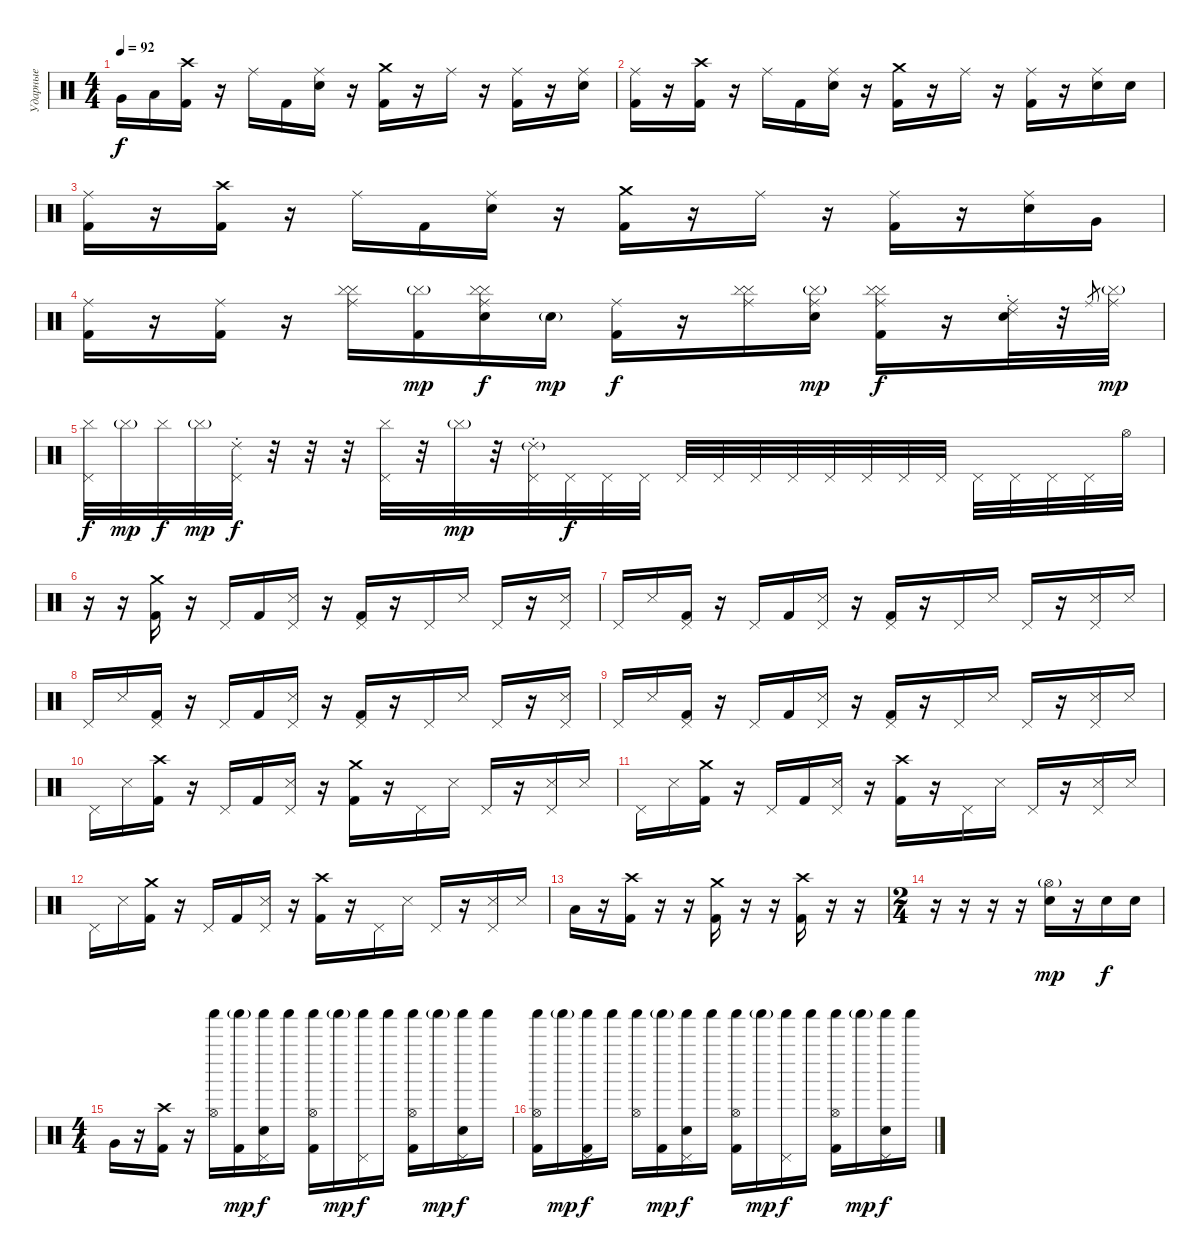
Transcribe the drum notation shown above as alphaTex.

\track ("Ударные" "Ударные") {instrument percussion}
\staff {score}
\articulation defaults
\ts (4 4)
\tempo 92
\clef neutral
\ks c "Very Low Tom (hit)".16{dy f} "Low Floor Tom (hit)".16
("Crash high (hit)" "Kick (hit) 2").16 r.16 "Ride (middle)".16 "Kick (hit) 2".16 ("Ride (middle)" "Electric Snare (hit)").16 r.16 ("Crash medium (hit)" "Kick (hit) 2").16 r.16 "Ride (middle)".16 r.16 ("Ride (middle)" "Kick (hit) 2").16 r.16 ("Ride (middle)" "Electric Snare (hit)").16 |
("Ride (middle)" "Kick (hit) 2").16 r.16 ("Crash high (hit)" "Kick (hit) 2").16 r.16 "Ride (middle)".16 "Kick (hit) 2".16 ("Ride (middle)" "Electric Snare (hit)").16 r.16 ("Crash medium (hit)" "Kick (hit) 2").16 r.16 "Ride (middle)".16 r.16 ("Ride (middle)" "Kick (hit) 2").16 r.16 ("Ride (middle)" "Electric Snare (hit)").16 "Electric Snare (hit)".16 |
("Ride (middle)" "Kick (hit) 2").16 r.16 ("Crash high (hit)" "Kick (hit) 2").16 r.16 "Ride (middle)".16 "Kick (hit) 2".16 ("Ride (middle)" "Electric Snare (hit)").16 r.16 ("Crash medium (hit)" "Kick (hit) 2").16 r.16 "Ride (middle)".16 r.16 ("Ride (middle)" "Kick (hit) 2").16 r.16 ("Ride (middle)" "Electric Snare (hit)").16 "Very Low Tom (hit)".16 |
("Ride (middle)" "Kick (hit) 2").16 r.16 ("Ride (middle)" "Kick (hit) 2").16 r.16 ("Ride (middle)" "Cymbal (hit)" "Cymbal (hit)").16 ("Cymbal (hit)"{g} "Kick (hit) 2").16{dy mp} ("Ride (middle)" "Electric Snare (hit)" "Cymbal (hit)" "Cymbal (hit)").16{dy f} "Electric Snare (hit)"{g}.16{dy mp} ("Ride (middle)" "Kick (hit) 2").16{dy f} r.16 ("Ride (middle)" "Cymbal (hit)" "Cymbal (hit)").16 ("Ride (middle)" "Electric Snare (hit)" "Cymbal (hit)"{g}).16{dy mp} ("Ride (middle)" "Cymbal (hit)" "Cymbal (hit)" "Kick (hit) 2").16{dy f} r.16 ("Ride (middle)" "Ride (choke) 2" "Electric Snare (hit)").32 r.32 "Ride (middle)".8{gr} ("Ride (middle)" "Cymbal (hit)"{g}).32{dy mp} |
("Pedal Hi-Hat (hit)" "Cymbal (hit)").32{dy f} "Cymbal (hit)"{g}.32{dy mp} "Cymbal (hit)".32{dy f} "Cymbal (hit)"{g}.32{dy mp} ("Pedal Hi-Hat (hit)" "Ride (choke) 2").32{dy f} r.32 r.32 r.32 ("Pedal Hi-Hat (hit)" "Cymbal (hit)").32 r.32 "Cymbal (hit)"{g}.32{dy mp} r.32 ("Pedal Hi-Hat (hit)" "Ride (choke) 2"{g}).32 "Pedal Hi-Hat (hit)".32{dy f} "Pedal Hi-Hat (hit)".32 "Pedal Hi-Hat (hit)".32 "Pedal Hi-Hat (hit)".32 "Pedal Hi-Hat (hit)".32 "Pedal Hi-Hat (hit)".32 "Pedal Hi-Hat (hit)".32 "Pedal Hi-Hat (hit)".32 "Pedal Hi-Hat (hit)".32 "Pedal Hi-Hat (hit)".32 "Pedal Hi-Hat (hit)".32 "Pedal Hi-Hat (hit)".32 "Pedal Hi-Hat (hit)".32 "Pedal Hi-Hat (hit)".32 "Pedal Hi-Hat (hit)".32 "Hi-Hat (open)".32 |
r.16 r.16 ("Crash medium (hit)" "Kick (hit) 2").16 r.16 "Pedal Hi-Hat (hit)".16 "Kick (hit) 2".16 ("Pedal Hi-Hat (hit)" "Snare (side stick) 3").16 r.16 ("Pedal Hi-Hat (hit)" "Kick (hit) 2").16 r.16 "Pedal Hi-Hat (hit)".16 "Snare (side stick) 3".16 "Pedal Hi-Hat (hit)".16 r.16 ("Pedal Hi-Hat (hit)" "Snare (side stick) 3").16 |
"Pedal Hi-Hat (hit)".16 "Snare (side stick) 3".16 ("Pedal Hi-Hat (hit)" "Kick (hit) 2").16 r.16 "Pedal Hi-Hat (hit)".16 "Kick (hit) 2".16 ("Pedal Hi-Hat (hit)" "Snare (side stick) 3").16 r.16 ("Pedal Hi-Hat (hit)" "Kick (hit) 2").16 r.16 "Pedal Hi-Hat (hit)".16 "Snare (side stick) 3".16 "Pedal Hi-Hat (hit)".16 r.16 ("Pedal Hi-Hat (hit)" "Snare (side stick) 3").16 "Snare (side stick) 3".16 |
"Pedal Hi-Hat (hit)".16 "Snare (side stick) 3".16 ("Pedal Hi-Hat (hit)" "Kick (hit) 2").16 r.16 "Pedal Hi-Hat (hit)".16 "Kick (hit) 2".16 ("Pedal Hi-Hat (hit)" "Snare (side stick) 3").16 r.16 ("Pedal Hi-Hat (hit)" "Kick (hit) 2").16 r.16 "Pedal Hi-Hat (hit)".16 "Snare (side stick) 3".16 "Pedal Hi-Hat (hit)".16 r.16 ("Pedal Hi-Hat (hit)" "Snare (side stick) 3").16 |
"Pedal Hi-Hat (hit)".16 "Snare (side stick) 3".16 ("Pedal Hi-Hat (hit)" "Kick (hit) 2").16 r.16 "Pedal Hi-Hat (hit)".16 "Kick (hit) 2".16 ("Pedal Hi-Hat (hit)" "Snare (side stick) 3").16 r.16 ("Pedal Hi-Hat (hit)" "Kick (hit) 2").16 r.16 "Pedal Hi-Hat (hit)".16 "Snare (side stick) 3".16 "Pedal Hi-Hat (hit)".16 r.16 ("Pedal Hi-Hat (hit)" "Snare (side stick) 3").16 "Snare (side stick) 3".16 |
"Pedal Hi-Hat (hit)".16 "Snare (side stick) 3".16 ("Crash high (hit)" "Kick (hit) 2").16 r.16 "Pedal Hi-Hat (hit)".16 "Kick (hit) 2".16 ("Pedal Hi-Hat (hit)" "Snare (side stick) 3").16 r.16 ("Crash medium (hit)" "Kick (hit) 2").16 r.16 "Pedal Hi-Hat (hit)".16 "Snare (side stick) 3".16 "Pedal Hi-Hat (hit)".16 r.16 ("Pedal Hi-Hat (hit)" "Snare (side stick) 3").16 "Snare (side stick) 3".16 |
"Pedal Hi-Hat (hit)".16 "Snare (side stick) 3".16 ("Crash medium (hit)" "Kick (hit) 2").16 r.16 "Pedal Hi-Hat (hit)".16 "Kick (hit) 2".16 ("Pedal Hi-Hat (hit)" "Snare (side stick) 3").16 r.16 ("Crash high (hit)" "Kick (hit) 2").16 r.16 "Pedal Hi-Hat (hit)".16 "Snare (side stick) 3".16 "Pedal Hi-Hat (hit)".16 r.16 ("Pedal Hi-Hat (hit)" "Snare (side stick) 3").16 "Snare (side stick) 3".16 |
"Pedal Hi-Hat (hit)".16 "Snare (side stick) 3".16 ("Crash medium (hit)" "Kick (hit) 2").16 r.16 "Pedal Hi-Hat (hit)".16 "Kick (hit) 2".16 ("Pedal Hi-Hat (hit)" "Snare (side stick) 3").16 r.16 ("Crash high (hit)" "Kick (hit) 2").16 r.16 "Pedal Hi-Hat (hit)".16 "Snare (side stick) 3".16 "Pedal Hi-Hat (hit)".16 r.16 ("Pedal Hi-Hat (hit)" "Snare (side stick) 3").16 "Snare (side stick) 3".16 |
"Low Tom (hit)".16 r.16 ("Crash high (hit)" "Kick (hit) 2").16 r.16 r.16 ("Crash medium (hit)" "Kick (hit) 2").16 r.16 r.16 ("Crash high (hit)" "Kick (hit) 2").16 r.16 r.16 |
\ts (2 4)
r.16 r.16 r.16 r.16 ("Hi-Hat (open)"{g} "Electric Snare (hit)").16{dy mp} r.16 "Electric Snare (hit)".16{dy f} "Electric Snare (hit)".16 |
\ts (4 4)
"Very Low Tom (hit)".16 r.16 ("Crash high (hit)" "Kick (hit) 2").16 r.16 ("Hi-Hat (open)" "Shaker (hit)").16 ("Shaker (hit)"{g} "Kick (hit) 2").16{dy mp} ("Pedal Hi-Hat (hit)" "Shaker (hit)" "Electric Snare (hit)").16{dy f} "Shaker (hit)".16 ("Hi-Hat (open)" "Shaker (hit)" "Kick (hit) 2").16 "Shaker (hit)"{g}.16{dy mp} ("Pedal Hi-Hat (hit)" "Shaker (hit)").16{dy f} "Shaker (hit)".16 ("Hi-Hat (open)" "Shaker (hit)" "Kick (hit) 2").16 "Shaker (hit)"{g}.16{dy mp} ("Pedal Hi-Hat (hit)" "Shaker (hit)" "Electric Snare (hit)").16{dy f} "Shaker (hit)".16 |
("Hi-Hat (open)" "Shaker (hit)" "Kick (hit) 2").16 "Shaker (hit)"{g}.16{dy mp} ("Pedal Hi-Hat (hit)" "Shaker (hit)" "Kick (hit) 2").16{dy f} "Shaker (hit)".16 ("Hi-Hat (open)" "Shaker (hit)").16 ("Shaker (hit)"{g} "Kick (hit) 2").16{dy mp} ("Pedal Hi-Hat (hit)" "Shaker (hit)" "Electric Snare (hit)").16{dy f} "Shaker (hit)".16 ("Hi-Hat (open)" "Shaker (hit)" "Kick (hit) 2").16 "Shaker (hit)"{g}.16{dy mp} ("Pedal Hi-Hat (hit)" "Shaker (hit)").16{dy f} "Shaker (hit)".16 ("Hi-Hat (open)" "Shaker (hit)" "Kick (hit) 2").16 "Shaker (hit)"{g}.16{dy mp} ("Pedal Hi-Hat (hit)" "Shaker (hit)" "Electric Snare (hit)").16{dy f} "Shaker (hit)".16
